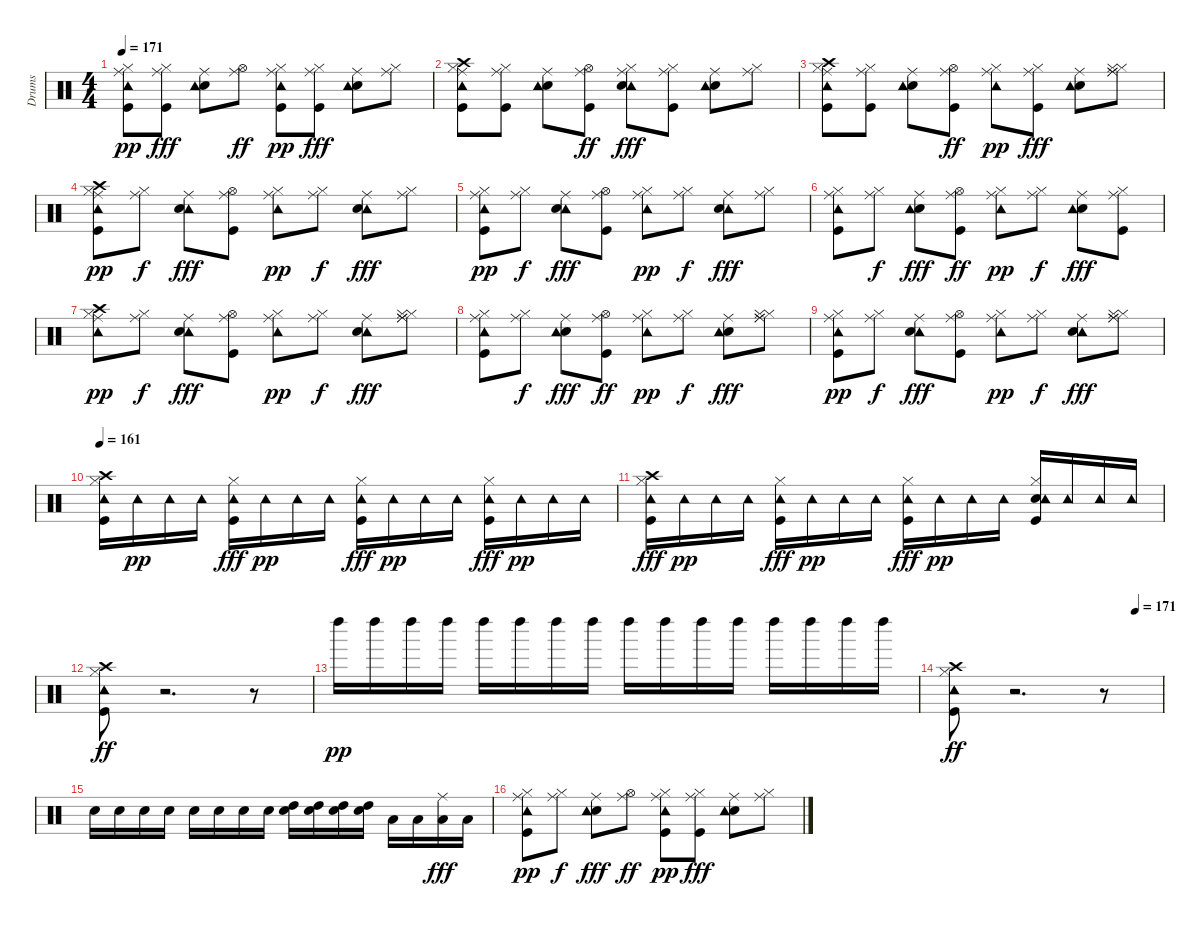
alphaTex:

\track ("Drums" "Drums") {instrument percussion}
\staff {score}
\articulation defaults
\ts (4 4)
\tempo 171
\clef neutral
\ks c
("Kick (hit)" "Tambourine (hit)" "Hi-Hat (closed)" "Ride (middle)").8{dy pp} ("Kick (hit)" "Hi-Hat (closed)" "Ride (middle)").8{dy fff} ("Snare (hit) 2" "Ride (middle)" "Tambourine (hit)").8 ("Hi-Hat (open)" "Ride (middle)").8{dy ff} ("Kick (hit)" "Tambourine (hit)" "Hi-Hat (closed)" "Ride (middle)").8{dy pp} ("Kick (hit)" "Hi-Hat (closed)" "Ride (middle)").8{dy fff} ("Snare (hit) 2" "Ride (middle)" "Tambourine (hit)").8 ("Hi-Hat (closed)" "Ride (middle)").8 |
("Kick (hit)" "Tambourine (hit)" "Hi-Hat (closed)" "Crash high (hit)" "Ride (middle)").8 ("Kick (hit)" "Hi-Hat (closed)" "Ride (middle)").8 ("Snare (hit) 2" "Ride (middle)" "Tambourine (hit)").8 ("Kick (hit)" "Hi-Hat (open)" "Ride (middle)").8{dy ff} ("Tambourine (hit)" "Snare (hit) 2" "Hi-Hat (closed)" "Ride (middle)").8{dy fff} ("Kick (hit)" "Hi-Hat (closed)" "Ride (middle)").8 ("Snare (hit) 2" "Ride (middle)" "Tambourine (hit)").8 ("Hi-Hat (closed)" "Ride (middle)").8 |
("Kick (hit)" "Tambourine (hit)" "Hi-Hat (closed)" "Crash high (hit)" "Ride (middle)").8 ("Kick (hit)" "Hi-Hat (closed)" "Ride (middle)").8 ("Snare (hit) 2" "Ride (middle)" "Tambourine (hit)").8 ("Kick (hit)" "Hi-Hat (open)" "Ride (middle)").8{dy ff} ("Tambourine (hit)" "Hi-Hat (closed)" "Ride (middle)").8{dy pp} ("Kick (hit)" "Hi-Hat (closed)" "Ride (middle)").8{dy fff} ("Snare (hit) 2" "Ride (middle)" "Tambourine (hit)").8 ("Hi-Hat (closed)" "Ride (middle)" "Hi-Hat (closed)" "Ride (middle)").8 |
("Ride (middle)" "Crash high (hit)" "Hi-Hat (closed)" "Kick (hit)" "Tambourine (hit)").8{dy pp} ("Ride (middle)" "Hi-Hat (closed)").8{dy f} ("Tambourine (hit)" "Ride (middle)" "Snare (hit) 2").8{dy fff} ("Ride (middle)" "Hi-Hat (open)" "Kick (hit)").8 ("Ride (middle)" "Hi-Hat (closed)" "Tambourine (hit)").8{dy pp} ("Ride (middle)" "Hi-Hat (closed)").8{dy f} ("Tambourine (hit)" "Ride (middle)" "Snare (hit) 2").8{dy fff} ("Ride (middle)" "Hi-Hat (closed)").8 |
("Ride (middle)" "Hi-Hat (closed)" "Kick (hit)" "Tambourine (hit)").8{dy pp} ("Ride (middle)" "Hi-Hat (closed)").8{dy f} ("Tambourine (hit)" "Ride (middle)" "Snare (hit) 2").8{dy fff} ("Ride (middle)" "Hi-Hat (open)" "Kick (hit)").8 ("Ride (middle)" "Hi-Hat (closed)" "Tambourine (hit)").8{dy pp} ("Ride (middle)" "Hi-Hat (closed)").8{dy f} ("Tambourine (hit)" "Ride (middle)" "Snare (hit) 2").8{dy fff} ("Ride (middle)" "Hi-Hat (closed)").8 |
("Tambourine (hit)" "Kick (hit)" "Hi-Hat (closed)" "Ride (middle)").8 ("Hi-Hat (closed)" "Ride (middle)").8{dy f} ("Snare (hit) 2" "Ride (middle)" "Tambourine (hit)").8{dy fff} ("Kick (hit)" "Hi-Hat (open)" "Ride (middle)").8{dy ff} ("Tambourine (hit)" "Hi-Hat (closed)" "Ride (middle)").8{dy pp} ("Hi-Hat (closed)" "Ride (middle)").8{dy f} ("Snare (hit) 2" "Ride (middle)" "Tambourine (hit)").8{dy fff} ("Kick (hit)" "Hi-Hat (closed)" "Ride (middle)").8 |
("Ride (middle)" "Crash high (hit)" "Hi-Hat (closed)" "Tambourine (hit)").8{dy pp} ("Ride (middle)" "Hi-Hat (closed)").8{dy f} ("Tambourine (hit)" "Ride (middle)" "Snare (hit) 2").8{dy fff} ("Ride (middle)" "Hi-Hat (open)" "Kick (hit)").8 ("Ride (middle)" "Hi-Hat (closed)" "Tambourine (hit)").8{dy pp} ("Ride (middle)" "Hi-Hat (closed)").8{dy f} ("Tambourine (hit)" "Ride (middle)" "Snare (hit) 2").8{dy fff} ("Ride (middle)" "Hi-Hat (closed)" "Ride (middle)" "Hi-Hat (closed)").8 |
("Tambourine (hit)" "Kick (hit)" "Hi-Hat (closed)" "Ride (middle)").8 ("Hi-Hat (closed)" "Ride (middle)").8{dy f} ("Snare (hit) 2" "Ride (middle)" "Tambourine (hit)").8{dy fff} ("Kick (hit)" "Hi-Hat (open)" "Ride (middle)").8{dy ff} ("Tambourine (hit)" "Hi-Hat (closed)" "Ride (middle)").8{dy pp} ("Hi-Hat (closed)" "Ride (middle)").8{dy f} ("Snare (hit) 2" "Ride (middle)" "Tambourine (hit)").8{dy fff} ("Hi-Hat (closed)" "Ride (middle)" "Ride (middle)" "Hi-Hat (closed)").8 |
("Ride (middle)" "Hi-Hat (closed)" "Kick (hit)" "Tambourine (hit)").8{dy pp} ("Ride (middle)" "Hi-Hat (closed)").8{dy f} ("Tambourine (hit)" "Ride (middle)" "Snare (hit) 2").8{dy fff} ("Ride (middle)" "Hi-Hat (open)" "Kick (hit)").8 ("Ride (middle)" "Hi-Hat (closed)" "Tambourine (hit)").8{dy pp} ("Ride (middle)" "Hi-Hat (closed)").8{dy f} ("Tambourine (hit)" "Ride (middle)" "Snare (hit) 2").8{dy fff} ("Ride (middle)" "Hi-Hat (closed)" "Hi-Hat (closed)" "Ride (middle)").8 |
\tempo 161
("Tambourine (hit)" "Hi-Hat (closed)" "Crash high (hit)" "Kick (hit)").16 "Tambourine (hit)".16{dy pp} "Tambourine (hit)".16 "Tambourine (hit)".16 ("Tambourine (hit)" "Hi-Hat (closed)" "Kick (hit)").16{dy fff} "Tambourine (hit)".16{dy pp} "Tambourine (hit)".16 "Tambourine (hit)".16 ("Tambourine (hit)" "Hi-Hat (closed)" "Kick (hit)").16{dy fff} "Tambourine (hit)".16{dy pp} "Tambourine (hit)".16 "Tambourine (hit)".16 ("Tambourine (hit)" "Hi-Hat (closed)" "Kick (hit)").16{dy fff} "Tambourine (hit)".16{dy pp} "Tambourine (hit)".16 "Tambourine (hit)".16 |
("Tambourine (hit)" "Crash high (hit)" "Hi-Hat (closed)" "Kick (hit)").16{dy fff} "Tambourine (hit)".16{dy pp} "Tambourine (hit)".16 "Tambourine (hit)".16 ("Tambourine (hit)" "Hi-Hat (closed)" "Kick (hit)").16{dy fff} "Tambourine (hit)".16{dy pp} "Tambourine (hit)".16 "Tambourine (hit)".16 ("Tambourine (hit)" "Hi-Hat (closed)" "Kick (hit)").16{dy fff} "Tambourine (hit)".16{dy pp} "Tambourine (hit)".16 "Tambourine (hit)".16 ("Kick (hit)" "Snare (hit) 2" "Hi-Hat (closed)" "Tambourine (hit)").16 "Tambourine (hit)".16 "Tambourine (hit)".16 "Tambourine (hit)".16 |
("Kick (hit)" "Hi-Hat (closed)" "Crash high (hit)" "Tambourine (hit)").8{dy ff} r.2{d} r.8 |
"Left Maraca (hit)".16{dy pp} "Left Maraca (hit)".16 "Left Maraca (hit)".16 "Left Maraca (hit)".16 "Left Maraca (hit)".16 "Left Maraca (hit)".16 "Left Maraca (hit)".16 "Left Maraca (hit)".16 "Left Maraca (hit)".16 "Left Maraca (hit)".16 "Left Maraca (hit)".16 "Left Maraca (hit)".16 "Left Maraca (hit)".16 "Left Maraca (hit)".16 "Left Maraca (hit)".16 "Left Maraca (hit)".16 |
\tempo (171 0.875)
("Kick (hit)" "Hi-Hat (closed)" "Crash high (hit)" "Tambourine (hit)").8{dy ff} r.2{d} r.8 |
"Electric Snare (hit)".16 "Electric Snare (hit)".16 "Electric Snare (hit)".16 "Electric Snare (hit)".16 "Electric Snare (hit)".16 "Electric Snare (hit)".16 "Electric Snare (hit)".16 "Electric Snare (hit)".16 ("Electric Snare (hit)" "High Tom (hit)").16 ("Electric Snare (hit)" "High Tom (hit)").16 ("Electric Snare (hit)" "High Tom (hit)").16 ("Electric Snare (hit)" "High Tom (hit)").16 "Low Tom (hit)".16 "Low Tom (hit)".16 ("Low Tom (hit)" "Ride (middle)").16{dy fff} "Low Tom (hit)".16 |
("Kick (hit)" "Hi-Hat (closed)" "Ride (middle)" "Tambourine (hit)").8{dy pp} ("Hi-Hat (closed)" "Ride (middle)").8{dy f} ("Snare (hit) 2" "Ride (middle)" "Tambourine (hit)").8{dy fff} ("Hi-Hat (open)" "Ride (middle)").8{dy ff} ("Kick (hit)" "Hi-Hat (closed)" "Ride (middle)" "Tambourine (hit)").8{dy pp} ("Kick (hit)" "Hi-Hat (closed)" "Ride (middle)").8{dy fff} ("Snare (hit) 2" "Ride (middle)" "Tambourine (hit)").8 ("Hi-Hat (closed)" "Ride (middle)").8
